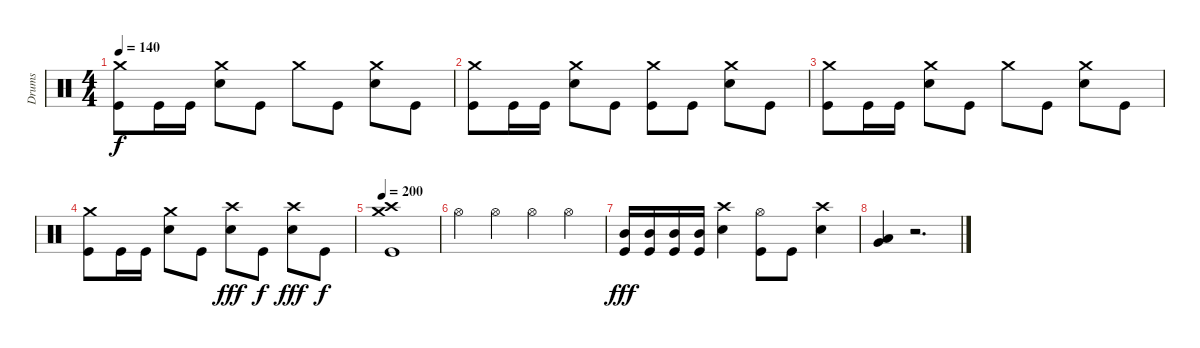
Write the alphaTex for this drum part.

\track ("Drums" "Drums") {instrument percussion}
\staff {score}
\articulation defaults
\ts (4 4)
\tempo 140
\clef neutral
\ks c
("Crash medium (hit)" "Kick (hit)").8{dy f} "Kick (hit)".16 "Kick (hit)".16 ("Crash medium (hit)" "Snare (hit) 2").8 "Kick (hit)".8 "Crash medium (hit)".8 "Kick (hit)".8 ("Crash medium (hit)" "Snare (hit) 2").8 "Kick (hit)".8 |
("Crash medium (hit)" "Kick (hit)").8 "Kick (hit)".16 "Kick (hit)".16 ("Crash medium (hit)" "Snare (hit) 2").8 "Kick (hit)".8 ("Crash medium (hit)" "Kick (hit)").8 "Kick (hit)".8 ("Crash medium (hit)" "Snare (hit) 2").8 "Kick (hit)".8 |
("Crash medium (hit)" "Kick (hit)").8 "Kick (hit)".16 "Kick (hit)".16 ("Crash medium (hit)" "Snare (hit) 2").8 "Kick (hit)".8 "Crash medium (hit)".8 "Kick (hit)".8 ("Crash medium (hit)" "Snare (hit) 2").8 "Kick (hit)".8 |
("Crash medium (hit)" "Kick (hit)").8 "Kick (hit)".16 "Kick (hit)".16 ("Crash medium (hit)" "Snare (hit) 2").8 "Kick (hit)".8 ("Crash high (hit)" "Snare (hit) 2").8{dy fff} "Kick (hit)".8{dy f} ("Crash high (hit)" "Snare (hit) 2").8{dy fff} "Kick (hit)".8{dy f} |
\tempo 200
("Crash medium (hit)" "Crash high (hit)" "Kick (hit)").1 |
"Hi-Hat (open)".4 "Hi-Hat (open)".4 "Hi-Hat (open)".4 "Hi-Hat (open)".4 |
("Mid Tom (hit)" "Kick (hit)").16{dy fff} ("Mid Tom (hit)" "Kick (hit)").16 ("Mid Tom (hit)" "Kick (hit)").16 ("Mid Tom (hit)" "Kick (hit)").16 ("Crash high (hit)" "Snare (hit) 2").4 ("Hi-Hat (open)" "Kick (hit)").8 "Kick (hit)".8 ("Crash high (hit)" "Snare (hit) 2").4 |
("Very Low Tom (hit)" "Low Floor Tom (hit)").4 r.2{d}
